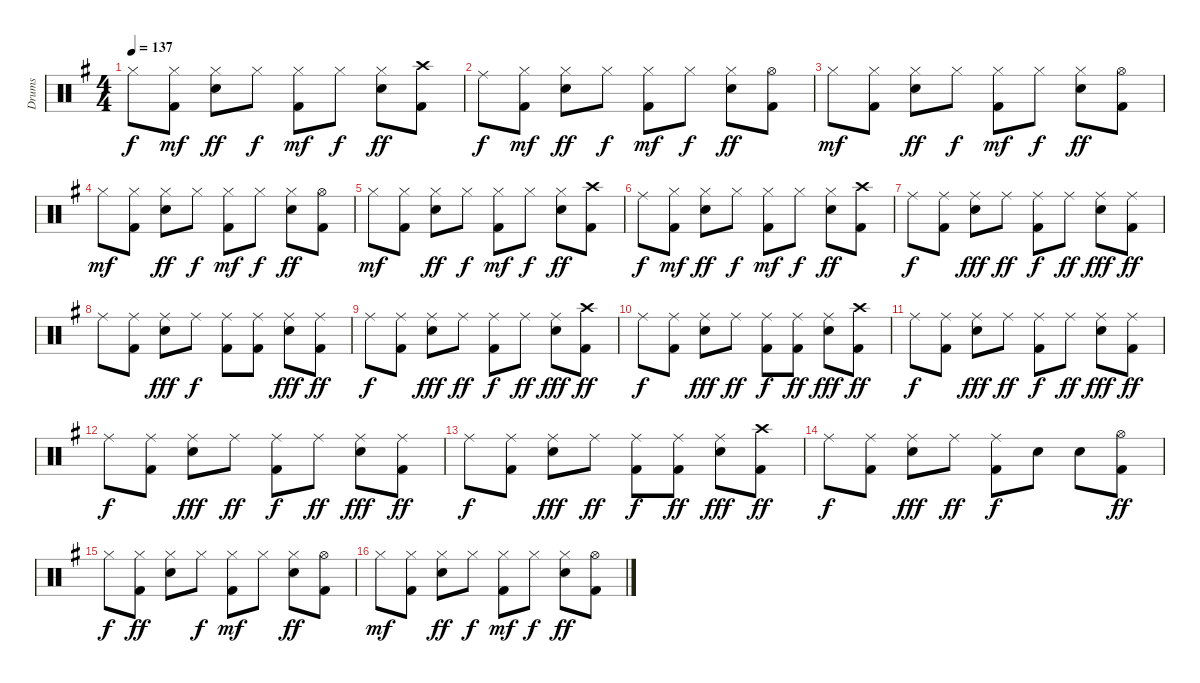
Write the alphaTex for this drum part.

\track ("Drums" "Drums") {instrument percussion}
\staff {score}
\articulation defaults
\ts (4 4)
\tempo 137
\clef neutral
\ks g "Hi-Hat (closed)".8{dy f}
("Hi-Hat (closed)" "Kick (hit) 2").8{dy mf} ("Hi-Hat (closed)" "Snare (hit) 2").8{dy ff} "Hi-Hat (closed)".8{dy f} ("Hi-Hat (closed)" "Kick (hit) 2").8{dy mf} "Hi-Hat (closed)".8{dy f} ("Hi-Hat (closed)" "Snare (hit) 2").8{dy ff} ("Crash high (hit)" "Kick (hit) 2").8 |
"Ride (middle)".8{dy f} ("Hi-Hat (closed)" "Kick (hit) 2").8{dy mf} ("Hi-Hat (closed)" "Snare (hit) 2").8{dy ff} "Hi-Hat (closed)".8{dy f} ("Hi-Hat (closed)" "Kick (hit) 2").8{dy mf} "Hi-Hat (closed)".8{dy f} ("Hi-Hat (closed)" "Snare (hit) 2").8{dy ff} ("Hi-Hat (open)" "Kick (hit) 2").8 |
"Hi-Hat (closed)".8{dy mf} ("Hi-Hat (closed)" "Kick (hit) 2").8 ("Hi-Hat (closed)" "Snare (hit) 2").8{dy ff} "Hi-Hat (closed)".8{dy f} ("Hi-Hat (closed)" "Kick (hit) 2").8{dy mf} "Hi-Hat (closed)".8{dy f} ("Hi-Hat (closed)" "Snare (hit) 2").8{dy ff} ("Hi-Hat (open)" "Kick (hit) 2").8 |
"Hi-Hat (closed)".8{dy mf} ("Hi-Hat (closed)" "Kick (hit) 2").8 ("Hi-Hat (closed)" "Snare (hit) 2").8{dy ff} "Hi-Hat (closed)".8{dy f} ("Hi-Hat (closed)" "Kick (hit) 2").8{dy mf} "Hi-Hat (closed)".8{dy f} ("Hi-Hat (closed)" "Snare (hit) 2").8{dy ff} ("Hi-Hat (open)" "Kick (hit) 2").8 |
"Hi-Hat (closed)".8{dy mf} ("Hi-Hat (closed)" "Kick (hit) 2").8 ("Hi-Hat (closed)" "Snare (hit) 2").8{dy ff} "Hi-Hat (closed)".8{dy f} ("Hi-Hat (closed)" "Kick (hit) 2").8{dy mf} "Hi-Hat (closed)".8{dy f} ("Hi-Hat (closed)" "Snare (hit) 2").8{dy ff} ("Crash high (hit)" "Kick (hit) 2").8 |
"Ride (middle)".8{dy f} ("Hi-Hat (closed)" "Kick (hit) 2").8{dy mf} ("Hi-Hat (closed)" "Snare (hit) 2").8{dy ff} "Hi-Hat (closed)".8{dy f} ("Hi-Hat (closed)" "Kick (hit) 2").8{dy mf} "Hi-Hat (closed)".8{dy f} ("Hi-Hat (closed)" "Snare (hit) 2").8{dy ff} ("Crash high (hit)" "Kick (hit) 2").8 |
"Ride (middle)".8{dy f} ("Ride (middle)" "Kick (hit) 2").8 ("Ride (middle)" "Snare (hit) 2").8{dy fff} "Ride (middle)".8{dy ff} ("Ride (middle)" "Kick (hit) 2").8{dy f} "Ride (middle)".8{dy ff} ("Ride (middle)" "Snare (hit) 2").8{dy fff} ("Ride (middle)" "Kick (hit) 2").8{dy ff} |
"Ride (middle)".8 ("Ride (middle)" "Kick (hit) 2").8 ("Ride (middle)" "Snare (hit) 2").8{dy fff} "Ride (middle)".8{dy f} ("Ride (middle)" "Kick (hit) 2").8 ("Ride (middle)" "Kick (hit) 2").8 ("Ride (middle)" "Snare (hit) 2").8{dy fff} ("Ride (middle)" "Kick (hit) 2").8{dy ff} |
"Ride (middle)".8{dy f} ("Ride (middle)" "Kick (hit) 2").8 ("Ride (middle)" "Snare (hit) 2").8{dy fff} "Ride (middle)".8{dy ff} ("Ride (middle)" "Kick (hit) 2").8{dy f} "Ride (middle)".8{dy ff} ("Ride (middle)" "Snare (hit) 2").8{dy fff} ("Crash high (hit)" "Kick (hit) 2").8{dy ff} |
"Ride (middle)".8{dy f} ("Ride (middle)" "Kick (hit) 2").8 ("Ride (middle)" "Snare (hit) 2").8{dy fff} "Ride (middle)".8{dy ff} ("Ride (middle)" "Kick (hit) 2").8{dy f} ("Ride (middle)" "Kick (hit) 2").8{dy ff} ("Ride (middle)" "Snare (hit) 2").8{dy fff} ("Crash high (hit)" "Kick (hit) 2").8{dy ff} |
"Ride (middle)".8{dy f} ("Ride (middle)" "Kick (hit) 2").8 ("Ride (middle)" "Snare (hit) 2").8{dy fff} "Ride (middle)".8{dy ff} ("Ride (middle)" "Kick (hit) 2").8{dy f} "Ride (middle)".8{dy ff} ("Ride (middle)" "Snare (hit) 2").8{dy fff} ("Ride (middle)" "Kick (hit) 2").8{dy ff} |
"Ride (middle)".8{dy f} ("Ride (middle)" "Kick (hit) 2").8 ("Ride (middle)" "Snare (hit) 2").8{dy fff} "Ride (middle)".8{dy ff} ("Ride (middle)" "Kick (hit) 2").8{dy f} "Ride (middle)".8{dy ff} ("Ride (middle)" "Snare (hit) 2").8{dy fff} ("Ride (middle)" "Kick (hit) 2").8{dy ff} |
"Ride (middle)".8{dy f} ("Ride (middle)" "Kick (hit) 2").8 ("Ride (middle)" "Snare (hit) 2").8{dy fff} "Ride (middle)".8{dy ff} ("Ride (middle)" "Kick (hit) 2").8{dy f} ("Ride (middle)" "Kick (hit) 2").8{dy ff} ("Ride (middle)" "Snare (hit) 2").8{dy fff} ("Crash high (hit)" "Kick (hit) 2").8{dy ff} |
"Ride (middle)".8{dy f} ("Ride (middle)" "Kick (hit) 2").8 ("Ride (middle)" "Snare (hit) 2").8{dy fff} "Ride (middle)".8{dy ff} ("Ride (middle)" "Kick (hit) 2").8{dy f} "Snare (hit) 2".8 "Snare (hit) 2".8 ("Hi-Hat (open)" "Kick (hit) 2").8{dy ff} |
"Hi-Hat (closed)".8{dy f} ("Hi-Hat (closed)" "Kick (hit) 2").8{dy ff} ("Hi-Hat (closed)" "Snare (hit) 2").8 "Hi-Hat (closed)".8{dy f} ("Hi-Hat (closed)" "Kick (hit) 2").8{dy mf} "Hi-Hat (closed)".8 ("Hi-Hat (closed)" "Snare (hit) 2").8{dy ff} ("Hi-Hat (open)" "Kick (hit) 2").8 |
"Hi-Hat (closed)".8{dy mf} ("Hi-Hat (closed)" "Kick (hit) 2").8 ("Hi-Hat (closed)" "Snare (hit) 2").8{dy ff} "Hi-Hat (closed)".8{dy f} ("Hi-Hat (closed)" "Kick (hit) 2").8{dy mf} "Hi-Hat (closed)".8{dy f} ("Hi-Hat (closed)" "Snare (hit) 2").8{dy ff} ("Hi-Hat (open)" "Kick (hit) 2").8
